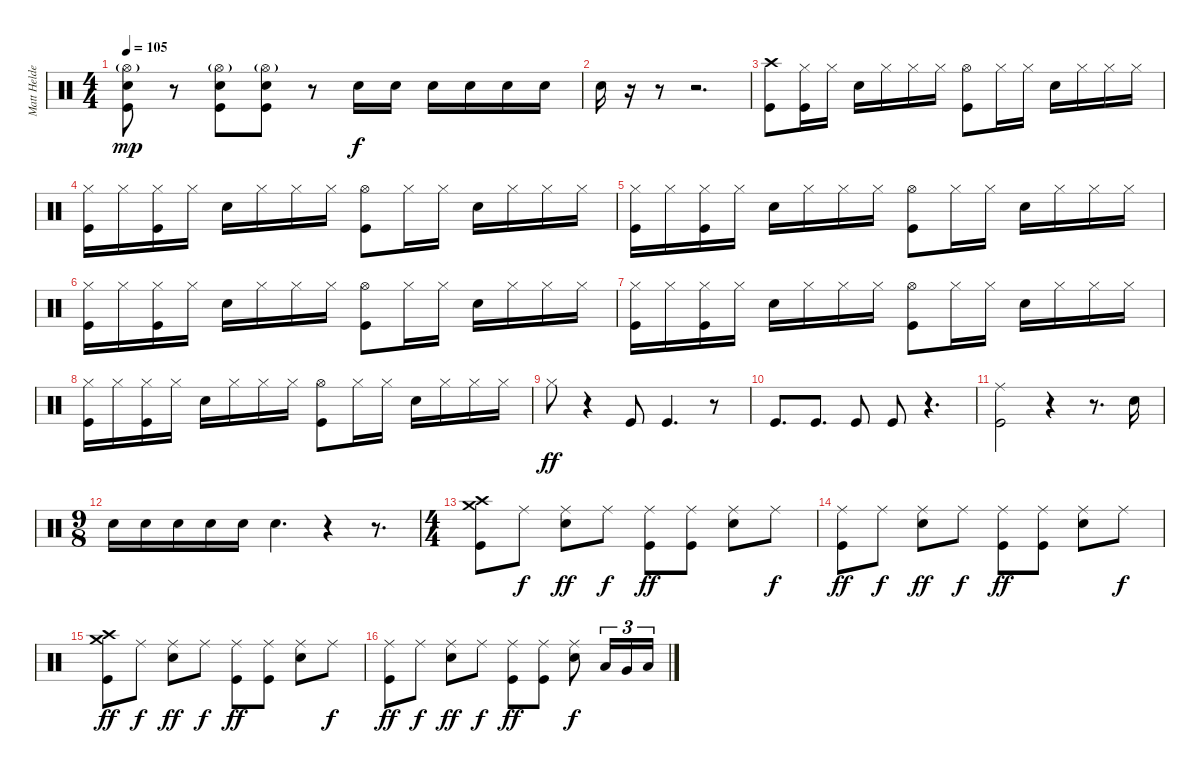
\track ("Matt Helders" "Matt Helde") {instrument percussion}
\staff {score}
\articulation defaults
\ts (4 4)
\tempo 105
\clef neutral
\ks c
("Hi-Hat (open)"{g} "Snare (hit) 2" "Kick (hit)").8{dy mp} r.8 ("Hi-Hat (open)"{g} "Snare (hit) 2" "Kick (hit)").8 ("Hi-Hat (open)"{g} "Snare (hit) 2" "Kick (hit)").8 r.8 "Snare (hit) 2".16{dy f} "Snare (hit) 2".16 "Snare (hit) 2".16 "Snare (hit) 2".16 "Snare (hit) 2".16 "Snare (hit) 2".16 |
"Snare (hit) 2".16 r.16 r.8 r.2{d} |
("Crash high (hit)" "Kick (hit)").8 ("Hi-Hat (closed)" "Kick (hit)").16 "Hi-Hat (closed)".16 "Snare (hit) 2".16 "Hi-Hat (closed)".16 "Hi-Hat (closed)".16 "Hi-Hat (closed)".16 ("Hi-Hat (open)" "Kick (hit)").8 "Hi-Hat (closed)".16 "Hi-Hat (closed)".16 "Snare (hit) 2".16 "Hi-Hat (closed)".16 "Hi-Hat (closed)".16 "Hi-Hat (closed)".16 |
("Hi-Hat (closed)" "Kick (hit)").16 "Hi-Hat (closed)".16 ("Hi-Hat (closed)" "Kick (hit)").16 "Hi-Hat (closed)".16 "Snare (hit) 2".16 "Hi-Hat (closed)".16 "Hi-Hat (closed)".16 "Hi-Hat (closed)".16 ("Hi-Hat (open)" "Kick (hit)").8 "Hi-Hat (closed)".16 "Hi-Hat (closed)".16 "Snare (hit) 2".16 "Hi-Hat (closed)".16 "Hi-Hat (closed)".16 "Hi-Hat (closed)".16 |
("Hi-Hat (closed)" "Kick (hit)").16 "Hi-Hat (closed)".16 ("Hi-Hat (closed)" "Kick (hit)").16 "Hi-Hat (closed)".16 "Snare (hit) 2".16 "Hi-Hat (closed)".16 "Hi-Hat (closed)".16 "Hi-Hat (closed)".16 ("Hi-Hat (open)" "Kick (hit)").8 "Hi-Hat (closed)".16 "Hi-Hat (closed)".16 "Snare (hit) 2".16 "Hi-Hat (closed)".16 "Hi-Hat (closed)".16 "Hi-Hat (closed)".16 |
("Hi-Hat (closed)" "Kick (hit)").16 "Hi-Hat (closed)".16 ("Hi-Hat (closed)" "Kick (hit)").16 "Hi-Hat (closed)".16 "Snare (hit) 2".16 "Hi-Hat (closed)".16 "Hi-Hat (closed)".16 "Hi-Hat (closed)".16 ("Hi-Hat (open)" "Kick (hit)").8 "Hi-Hat (closed)".16 "Hi-Hat (closed)".16 "Snare (hit) 2".16 "Hi-Hat (closed)".16 "Hi-Hat (closed)".16 "Hi-Hat (closed)".16 |
("Hi-Hat (closed)" "Kick (hit)").16 "Hi-Hat (closed)".16 ("Hi-Hat (closed)" "Kick (hit)").16 "Hi-Hat (closed)".16 "Snare (hit) 2".16 "Hi-Hat (closed)".16 "Hi-Hat (closed)".16 "Hi-Hat (closed)".16 ("Hi-Hat (open)" "Kick (hit)").8 "Hi-Hat (closed)".16 "Hi-Hat (closed)".16 "Snare (hit) 2".16 "Hi-Hat (closed)".16 "Hi-Hat (closed)".16 "Hi-Hat (closed)".16 |
("Hi-Hat (closed)" "Kick (hit)").16 "Hi-Hat (closed)".16 ("Hi-Hat (closed)" "Kick (hit)").16 "Hi-Hat (closed)".16 "Snare (hit) 2".16 "Hi-Hat (closed)".16 "Hi-Hat (closed)".16 "Hi-Hat (closed)".16 ("Hi-Hat (open)" "Kick (hit)").8 "Hi-Hat (closed)".16 "Hi-Hat (closed)".16 "Snare (hit) 2".16 "Hi-Hat (closed)".16 "Hi-Hat (closed)".16 "Hi-Hat (closed)".16 |
"Hi-Hat (closed)".8{dy ff} r.4 "Kick (hit)".8 "Kick (hit)".4{d} r.8 |
"Kick (hit)".8{d} "Kick (hit)".8{d} "Kick (hit)".8 "Kick (hit)".8 r.4{d} |
("Ride (middle)" "Kick (hit)").2 r.4 r.8{d} "Snare (hit) 2".16 |
\ts (9 8)
"Snare (hit) 2".16 "Snare (hit) 2".16 "Snare (hit) 2".16 "Snare (hit) 2".16 "Snare (hit) 2".16 "Snare (hit) 2".4{d} r.4 r.8{d} |
\ts (4 4)
("Crash high (hit)" "Crash medium (hit)" "Kick (hit)").8 "Ride (middle)".8{dy f} ("Ride (middle)" "Snare (hit) 2").8{dy ff} "Ride (middle)".8{dy f} ("Ride (middle)" "Kick (hit)").8{dy ff} ("Ride (middle)" "Kick (hit)").8 ("Ride (middle)" "Snare (hit) 2").8 "Ride (middle)".8{dy f} |
("Ride (middle)" "Kick (hit)").8{dy ff} "Ride (middle)".8{dy f} ("Ride (middle)" "Snare (hit) 2").8{dy ff} "Ride (middle)".8{dy f} ("Ride (middle)" "Kick (hit)").8{dy ff} ("Ride (middle)" "Kick (hit)").8 ("Ride (middle)" "Snare (hit) 2").8 "Ride (middle)".8{dy f} |
("Crash high (hit)" "Crash medium (hit)" "Kick (hit)").8{dy ff} "Ride (middle)".8{dy f} ("Ride (middle)" "Snare (hit) 2").8{dy ff} "Ride (middle)".8{dy f} ("Ride (middle)" "Kick (hit)").8{dy ff} ("Ride (middle)" "Kick (hit)").8 ("Ride (middle)" "Snare (hit) 2").8 "Ride (middle)".8{dy f} |
("Ride (middle)" "Kick (hit)").8{dy ff} "Ride (middle)".8{dy f} ("Ride (middle)" "Snare (hit) 2").8{dy ff} "Ride (middle)".8{dy f} ("Ride (middle)" "Kick (hit)").8{dy ff} ("Ride (middle)" "Kick (hit)").8 ("Ride (middle)" "Snare (hit) 2").8{dy f} "Low Tom (hit)".16{tu (3 2)} "Very Low Tom (hit)".16{tu (3 2)} "Low Floor Tom (hit)".16{tu (3 2)}
